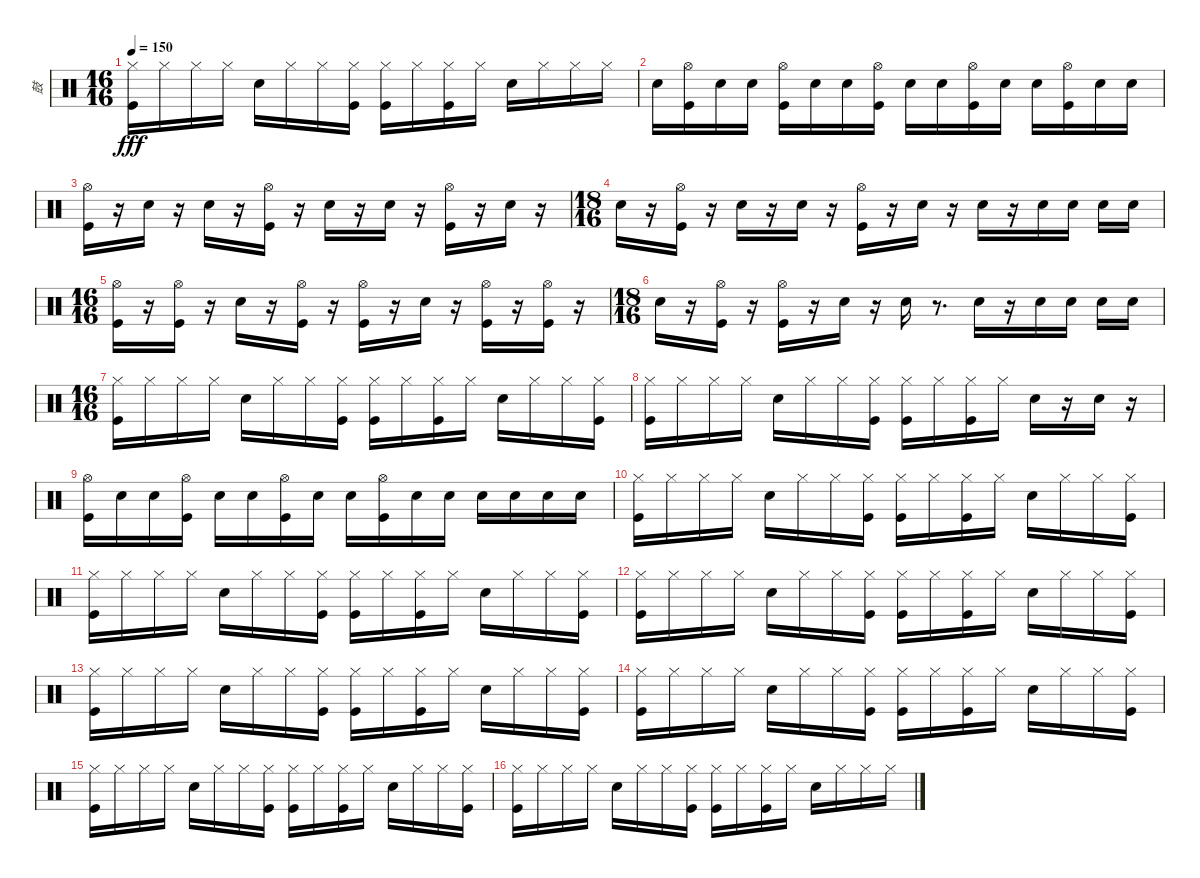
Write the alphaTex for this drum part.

\track ("鼓" "鼓") {instrument percussion}
\staff {score}
\articulation defaults
\ts (16 16)
\tempo 150
\clef neutral
\ks c
("Hi-Hat (closed)" "Kick (hit)").16{dy fff} "Hi-Hat (closed)".16 "Hi-Hat (closed)".16 "Hi-Hat (closed)".16 "Snare (hit) 2".16 "Hi-Hat (closed)".16 "Hi-Hat (closed)".16 ("Hi-Hat (closed)" "Kick (hit)").16 ("Hi-Hat (closed)" "Kick (hit)").16 "Hi-Hat (closed)".16 ("Hi-Hat (closed)" "Kick (hit)").16 "Hi-Hat (closed)".16 "Snare (hit) 2".16 "Hi-Hat (closed)".16 "Hi-Hat (closed)".16 "Hi-Hat (closed)".16 |
"Snare (hit) 2".16 ("Kick (hit)" "Hi-Hat (open)").16 "Snare (hit) 2".16 "Snare (hit) 2".16 ("Kick (hit)" "Hi-Hat (open)").16 "Snare (hit) 2".16 "Snare (hit) 2".16 ("Kick (hit)" "Hi-Hat (open)").16 "Snare (hit) 2".16 "Snare (hit) 2".16 ("Kick (hit)" "Hi-Hat (open)").16 "Snare (hit) 2".16 "Snare (hit) 2".16 ("Kick (hit)" "Hi-Hat (open)").16 "Snare (hit) 2".16 "Snare (hit) 2".16 |
("Kick (hit)" "Hi-Hat (open)").16 r.16 "Snare (hit) 2".16 r.16 "Snare (hit) 2".16 r.16 ("Kick (hit)" "Hi-Hat (open)").16 r.16 "Snare (hit) 2".16 r.16 "Snare (hit) 2".16 r.16 ("Kick (hit)" "Hi-Hat (open)").16 r.16 "Snare (hit) 2".16 r.16 |
\ts (18 16)
"Snare (hit) 2".16 r.16 ("Hi-Hat (open)" "Kick (hit)").16 r.16 "Snare (hit) 2".16 r.16 "Snare (hit) 2".16 r.16 ("Hi-Hat (open)" "Kick (hit)").16 r.16 "Snare (hit) 2".16 r.16 "Snare (hit) 2".16 r.16 "Snare (hit) 2".16 "Snare (hit) 2".16 "Snare (hit) 2".16 "Snare (hit) 2".16 |
\ts (16 16)
("Hi-Hat (open)" "Kick (hit)").16 r.16 ("Kick (hit)" "Hi-Hat (open)").16 r.16 "Snare (hit) 2".16 r.16 ("Hi-Hat (open)" "Kick (hit)").16 r.16 ("Hi-Hat (open)" "Kick (hit)").16 r.16 "Snare (hit) 2".16 r.16 ("Hi-Hat (open)" "Kick (hit)").16 r.16 ("Hi-Hat (open)" "Kick (hit)").16 r.16 |
\ts (18 16)
"Snare (hit) 2".16 r.16 ("Kick (hit)" "Hi-Hat (open)").16 r.16 ("Hi-Hat (open)" "Kick (hit)").16 r.16 "Snare (hit) 2".16 r.16 "Snare (hit) 2".16 r.8{d} "Snare (hit) 2".16 r.16 "Snare (hit) 2".16 "Snare (hit) 2".16 "Snare (hit) 2".16 "Snare (hit) 2".16 |
\ts (16 16)
("Kick (hit)" "Hi-Hat (closed)").16 "Hi-Hat (closed)".16 "Hi-Hat (closed)".16 "Hi-Hat (closed)".16 "Snare (hit) 2".16 "Hi-Hat (closed)".16 "Hi-Hat (closed)".16 ("Kick (hit)" "Hi-Hat (closed)").16 ("Kick (hit)" "Hi-Hat (closed)").16 "Hi-Hat (closed)".16 ("Kick (hit)" "Hi-Hat (closed)").16 "Hi-Hat (closed)".16 "Snare (hit) 2".16 "Hi-Hat (closed)".16 "Hi-Hat (closed)".16 ("Kick (hit)" "Hi-Hat (closed)").16 |
("Kick (hit)" "Hi-Hat (closed)").16 "Hi-Hat (closed)".16 "Hi-Hat (closed)".16 "Hi-Hat (closed)".16 "Snare (hit) 2".16 "Hi-Hat (closed)".16 "Hi-Hat (closed)".16 ("Kick (hit)" "Hi-Hat (closed)").16 ("Kick (hit)" "Hi-Hat (closed)").16 "Hi-Hat (closed)".16 ("Kick (hit)" "Hi-Hat (closed)").16 "Hi-Hat (closed)".16 "Snare (hit) 2".16 r.16 "Snare (hit) 2".16 r.16 |
("Kick (hit)" "Hi-Hat (open)").16 "Snare (hit) 2".16 "Snare (hit) 2".16 ("Kick (hit)" "Hi-Hat (open)").16 "Snare (hit) 2".16 "Snare (hit) 2".16 ("Kick (hit)" "Hi-Hat (open)").16 "Snare (hit) 2".16 "Snare (hit) 2".16 ("Kick (hit)" "Hi-Hat (open)").16 "Snare (hit) 2".16 "Snare (hit) 2".16 "Snare (hit) 2".16 "Snare (hit) 2".16 "Snare (hit) 2".16 "Snare (hit) 2".16 |
("Hi-Hat (closed)" "Kick (hit)").16 "Hi-Hat (closed)".16 "Hi-Hat (closed)".16 "Hi-Hat (closed)".16 "Snare (hit) 2".16 "Hi-Hat (closed)".16 "Hi-Hat (closed)".16 ("Hi-Hat (closed)" "Kick (hit)").16 ("Hi-Hat (closed)" "Kick (hit)").16 "Hi-Hat (closed)".16 ("Hi-Hat (closed)" "Kick (hit)").16 "Hi-Hat (closed)".16 "Snare (hit) 2".16 "Hi-Hat (closed)".16 "Hi-Hat (closed)".16 ("Hi-Hat (closed)" "Kick (hit)").16 |
("Hi-Hat (closed)" "Kick (hit)").16 "Hi-Hat (closed)".16 "Hi-Hat (closed)".16 "Hi-Hat (closed)".16 "Snare (hit) 2".16 "Hi-Hat (closed)".16 "Hi-Hat (closed)".16 ("Hi-Hat (closed)" "Kick (hit)").16 ("Hi-Hat (closed)" "Kick (hit)").16 "Hi-Hat (closed)".16 ("Hi-Hat (closed)" "Kick (hit)").16 "Hi-Hat (closed)".16 "Snare (hit) 2".16 "Hi-Hat (closed)".16 "Hi-Hat (closed)".16 ("Hi-Hat (closed)" "Kick (hit)").16 |
("Hi-Hat (closed)" "Kick (hit)").16 "Hi-Hat (closed)".16 "Hi-Hat (closed)".16 "Hi-Hat (closed)".16 "Snare (hit) 2".16 "Hi-Hat (closed)".16 "Hi-Hat (closed)".16 ("Hi-Hat (closed)" "Kick (hit)").16 ("Hi-Hat (closed)" "Kick (hit)").16 "Hi-Hat (closed)".16 ("Hi-Hat (closed)" "Kick (hit)").16 "Hi-Hat (closed)".16 "Snare (hit) 2".16 "Hi-Hat (closed)".16 "Hi-Hat (closed)".16 ("Hi-Hat (closed)" "Kick (hit)").16 |
("Hi-Hat (closed)" "Kick (hit)").16 "Hi-Hat (closed)".16 "Hi-Hat (closed)".16 "Hi-Hat (closed)".16 "Snare (hit) 2".16 "Hi-Hat (closed)".16 "Hi-Hat (closed)".16 ("Hi-Hat (closed)" "Kick (hit)").16 ("Hi-Hat (closed)" "Kick (hit)").16 "Hi-Hat (closed)".16 ("Hi-Hat (closed)" "Kick (hit)").16 "Hi-Hat (closed)".16 "Snare (hit) 2".16 "Hi-Hat (closed)".16 "Hi-Hat (closed)".16 ("Hi-Hat (closed)" "Kick (hit)").16 |
("Hi-Hat (closed)" "Kick (hit)").16 "Hi-Hat (closed)".16 "Hi-Hat (closed)".16 "Hi-Hat (closed)".16 "Snare (hit) 2".16 "Hi-Hat (closed)".16 "Hi-Hat (closed)".16 ("Hi-Hat (closed)" "Kick (hit)").16 ("Hi-Hat (closed)" "Kick (hit)").16 "Hi-Hat (closed)".16 ("Hi-Hat (closed)" "Kick (hit)").16 "Hi-Hat (closed)".16 "Snare (hit) 2".16 "Hi-Hat (closed)".16 "Hi-Hat (closed)".16 ("Hi-Hat (closed)" "Kick (hit)").16 |
("Hi-Hat (closed)" "Kick (hit)").16 "Hi-Hat (closed)".16 "Hi-Hat (closed)".16 "Hi-Hat (closed)".16 "Snare (hit) 2".16 "Hi-Hat (closed)".16 "Hi-Hat (closed)".16 ("Hi-Hat (closed)" "Kick (hit)").16 ("Hi-Hat (closed)" "Kick (hit)").16 "Hi-Hat (closed)".16 ("Hi-Hat (closed)" "Kick (hit)").16 "Hi-Hat (closed)".16 "Snare (hit) 2".16 "Hi-Hat (closed)".16 "Hi-Hat (closed)".16 ("Hi-Hat (closed)" "Kick (hit)").16 |
("Hi-Hat (closed)" "Kick (hit)").16 "Hi-Hat (closed)".16 "Hi-Hat (closed)".16 "Hi-Hat (closed)".16 "Snare (hit) 2".16 "Hi-Hat (closed)".16 "Hi-Hat (closed)".16 ("Hi-Hat (closed)" "Kick (hit)").16 ("Hi-Hat (closed)" "Kick (hit)").16 "Hi-Hat (closed)".16 ("Hi-Hat (closed)" "Kick (hit)").16 "Hi-Hat (closed)".16 "Snare (hit) 2".16 "Hi-Hat (closed)".16 "Hi-Hat (closed)".16 "Hi-Hat (closed)".16
